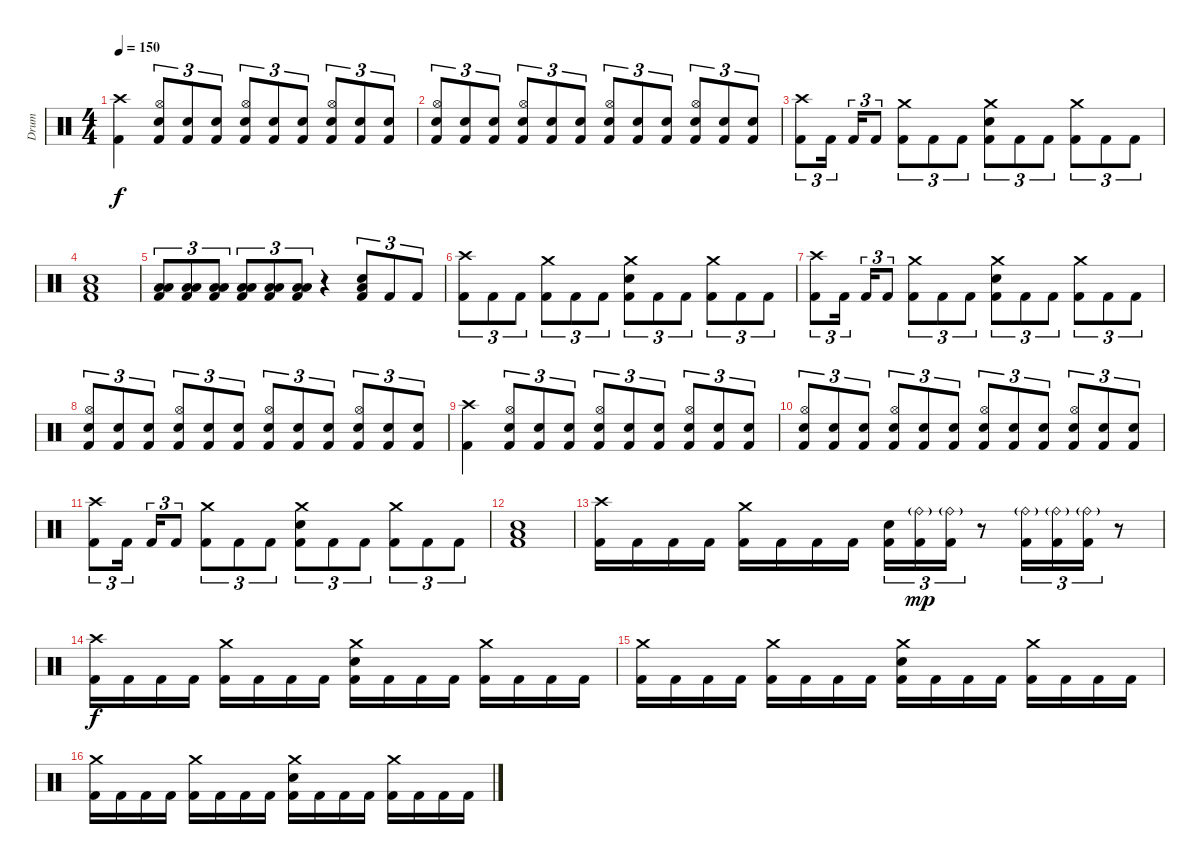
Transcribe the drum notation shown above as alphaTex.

\track ("Drum" "Drum") {instrument percussion}
\staff {score}
\articulation defaults
\ts (4 4)
\tempo 150
\clef neutral
\ks c
("Crash high (hit)" "Kick (hit) 2").4{dy f} ("Hi-Hat (open)" "Electric Snare (hit)" "Kick (hit) 2").8{tu (3 2)} ("Electric Snare (hit)" "Kick (hit) 2").8{tu (3 2)} ("Electric Snare (hit)" "Kick (hit) 2").8{tu (3 2)} ("Hi-Hat (open)" "Electric Snare (hit)" "Kick (hit) 2").8{tu (3 2)} ("Electric Snare (hit)" "Kick (hit) 2").8{tu (3 2)} ("Electric Snare (hit)" "Kick (hit) 2").8{tu (3 2)} ("Hi-Hat (open)" "Electric Snare (hit)" "Kick (hit) 2").8{tu (3 2)} ("Electric Snare (hit)" "Kick (hit) 2").8{tu (3 2)} ("Electric Snare (hit)" "Kick (hit) 2").8{tu (3 2)} |
("Hi-Hat (open)" "Electric Snare (hit)" "Kick (hit) 2").8{tu (3 2)} ("Electric Snare (hit)" "Kick (hit) 2").8{tu (3 2)} ("Electric Snare (hit)" "Kick (hit) 2").8{tu (3 2)} ("Hi-Hat (open)" "Electric Snare (hit)" "Kick (hit) 2").8{tu (3 2)} ("Electric Snare (hit)" "Kick (hit) 2").8{tu (3 2)} ("Electric Snare (hit)" "Kick (hit) 2").8{tu (3 2)} ("Hi-Hat (open)" "Electric Snare (hit)" "Kick (hit) 2").8{tu (3 2)} ("Electric Snare (hit)" "Kick (hit) 2").8{tu (3 2)} ("Electric Snare (hit)" "Kick (hit) 2").8{tu (3 2)} ("Hi-Hat (open)" "Electric Snare (hit)" "Kick (hit) 2").8{tu (3 2)} ("Electric Snare (hit)" "Kick (hit) 2").8{tu (3 2)} ("Electric Snare (hit)" "Kick (hit) 2").8{tu (3 2)} |
("Crash high (hit)" "Kick (hit) 2").8{tu (3 2)} "Kick (hit) 2".16{tu (3 2) beam splitsecondary} "Kick (hit) 2".16{tu (3 2)} "Kick (hit) 2".8{tu (3 2)} ("Crash medium (hit)" "Kick (hit) 2").8{tu (3 2)} "Kick (hit) 2".8{tu (3 2)} "Kick (hit) 2".8{tu (3 2)} ("Crash medium (hit)" "Electric Snare (hit)" "Kick (hit) 2").8{tu (3 2)} "Kick (hit) 2".8{tu (3 2)} "Kick (hit) 2".8{tu (3 2)} ("Crash medium (hit)" "Kick (hit) 2").8{tu (3 2)} "Kick (hit) 2".8{tu (3 2)} "Kick (hit) 2".8{tu (3 2)} |
("Electric Snare (hit)" "Low Floor Tom (hit)" "Kick (hit) 2").1 |
("Low Tom (hit)" "Low Floor Tom (hit)" "Kick (hit) 2").8{tu (3 2)} ("Low Tom (hit)" "Low Floor Tom (hit)" "Kick (hit) 2").8{tu (3 2)} ("Low Tom (hit)" "Low Floor Tom (hit)" "Kick (hit) 2").8{tu (3 2)} ("Low Tom (hit)" "Low Floor Tom (hit)" "Kick (hit) 2").8{tu (3 2)} ("Low Tom (hit)" "Low Floor Tom (hit)" "Kick (hit) 2").8{tu (3 2)} ("Low Tom (hit)" "Low Floor Tom (hit)" "Kick (hit) 2").8{tu (3 2)} r.4 ("Electric Snare (hit)" "Low Floor Tom (hit)" "Kick (hit) 2").8{tu (3 2)} "Kick (hit) 2".8{tu (3 2)} "Kick (hit) 2".8{tu (3 2)} |
("Crash high (hit)" "Kick (hit) 2").8{tu (3 2)} "Kick (hit) 2".8{tu (3 2)} "Kick (hit) 2".8{tu (3 2)} ("Crash medium (hit)" "Kick (hit) 2").8{tu (3 2)} "Kick (hit) 2".8{tu (3 2)} "Kick (hit) 2".8{tu (3 2)} ("Crash medium (hit)" "Electric Snare (hit)" "Kick (hit) 2").8{tu (3 2)} "Kick (hit) 2".8{tu (3 2)} "Kick (hit) 2".8{tu (3 2)} ("Crash medium (hit)" "Kick (hit) 2").8{tu (3 2)} "Kick (hit) 2".8{tu (3 2)} "Kick (hit) 2".8{tu (3 2)} |
("Crash high (hit)" "Kick (hit) 2").8{tu (3 2)} "Kick (hit) 2".16{tu (3 2) beam splitsecondary} "Kick (hit) 2".16{tu (3 2)} "Kick (hit) 2".8{tu (3 2)} ("Crash medium (hit)" "Kick (hit) 2").8{tu (3 2)} "Kick (hit) 2".8{tu (3 2)} "Kick (hit) 2".8{tu (3 2)} ("Crash medium (hit)" "Electric Snare (hit)" "Kick (hit) 2").8{tu (3 2)} "Kick (hit) 2".8{tu (3 2)} "Kick (hit) 2".8{tu (3 2)} ("Crash medium (hit)" "Kick (hit) 2").8{tu (3 2)} "Kick (hit) 2".8{tu (3 2)} "Kick (hit) 2".8{tu (3 2)} |
("Hi-Hat (open)" "Electric Snare (hit)" "Kick (hit) 2").8{tu (3 2)} ("Electric Snare (hit)" "Kick (hit) 2").8{tu (3 2)} ("Electric Snare (hit)" "Kick (hit) 2").8{tu (3 2)} ("Hi-Hat (open)" "Electric Snare (hit)" "Kick (hit) 2").8{tu (3 2)} ("Electric Snare (hit)" "Kick (hit) 2").8{tu (3 2)} ("Electric Snare (hit)" "Kick (hit) 2").8{tu (3 2)} ("Hi-Hat (open)" "Electric Snare (hit)" "Kick (hit) 2").8{tu (3 2)} ("Electric Snare (hit)" "Kick (hit) 2").8{tu (3 2)} ("Electric Snare (hit)" "Kick (hit) 2").8{tu (3 2)} ("Hi-Hat (open)" "Electric Snare (hit)" "Kick (hit) 2").8{tu (3 2)} ("Electric Snare (hit)" "Kick (hit) 2").8{tu (3 2)} ("Electric Snare (hit)" "Kick (hit) 2").8{tu (3 2)} |
("Crash high (hit)" "Kick (hit) 2").4 ("Hi-Hat (open)" "Electric Snare (hit)" "Kick (hit) 2").8{tu (3 2)} ("Electric Snare (hit)" "Kick (hit) 2").8{tu (3 2)} ("Electric Snare (hit)" "Kick (hit) 2").8{tu (3 2)} ("Hi-Hat (open)" "Electric Snare (hit)" "Kick (hit) 2").8{tu (3 2)} ("Electric Snare (hit)" "Kick (hit) 2").8{tu (3 2)} ("Electric Snare (hit)" "Kick (hit) 2").8{tu (3 2)} ("Hi-Hat (open)" "Electric Snare (hit)" "Kick (hit) 2").8{tu (3 2)} ("Electric Snare (hit)" "Kick (hit) 2").8{tu (3 2)} ("Electric Snare (hit)" "Kick (hit) 2").8{tu (3 2)} |
("Hi-Hat (open)" "Electric Snare (hit)" "Kick (hit) 2").8{tu (3 2)} ("Electric Snare (hit)" "Kick (hit) 2").8{tu (3 2)} ("Electric Snare (hit)" "Kick (hit) 2").8{tu (3 2)} ("Hi-Hat (open)" "Electric Snare (hit)" "Kick (hit) 2").8{tu (3 2)} ("Electric Snare (hit)" "Kick (hit) 2").8{tu (3 2)} ("Electric Snare (hit)" "Kick (hit) 2").8{tu (3 2)} ("Hi-Hat (open)" "Electric Snare (hit)" "Kick (hit) 2").8{tu (3 2)} ("Electric Snare (hit)" "Kick (hit) 2").8{tu (3 2)} ("Electric Snare (hit)" "Kick (hit) 2").8{tu (3 2)} ("Hi-Hat (open)" "Electric Snare (hit)" "Kick (hit) 2").8{tu (3 2)} ("Electric Snare (hit)" "Kick (hit) 2").8{tu (3 2)} ("Electric Snare (hit)" "Kick (hit) 2").8{tu (3 2)} |
("Crash high (hit)" "Kick (hit) 2").8{tu (3 2)} "Kick (hit) 2".16{tu (3 2) beam splitsecondary} "Kick (hit) 2".16{tu (3 2)} "Kick (hit) 2".8{tu (3 2)} ("Crash medium (hit)" "Kick (hit) 2").8{tu (3 2)} "Kick (hit) 2".8{tu (3 2)} "Kick (hit) 2".8{tu (3 2)} ("Crash medium (hit)" "Electric Snare (hit)" "Kick (hit) 2").8{tu (3 2)} "Kick (hit) 2".8{tu (3 2)} "Kick (hit) 2".8{tu (3 2)} ("Crash medium (hit)" "Kick (hit) 2").8{tu (3 2)} "Kick (hit) 2".8{tu (3 2)} "Kick (hit) 2".8{tu (3 2)} |
("Electric Snare (hit)" "Low Floor Tom (hit)" "Kick (hit) 2").1 |
("Crash high (hit)" "Kick (hit) 2").16 "Kick (hit) 2".16 "Kick (hit) 2".16 "Kick (hit) 2".16 ("Crash medium (hit)" "Kick (hit) 2").16 "Kick (hit) 2".16 "Kick (hit) 2".16 "Kick (hit) 2".16 ("Electric Snare (hit)" "Kick (hit) 2").16{tu (3 2)} ("Ride (bell)"{g} "Kick (hit) 2").16{tu (3 2) dy mp} ("Ride (bell)"{g} "Kick (hit) 2").16{tu (3 2)} r.8 ("Ride (bell)"{g} "Kick (hit) 2").16{tu (3 2)} ("Ride (bell)"{g} "Kick (hit) 2").16{tu (3 2)} ("Ride (bell)"{g} "Kick (hit) 2").16{tu (3 2)} r.8 |
("Crash high (hit)" "Kick (hit) 2").16{dy f} "Kick (hit) 2".16 "Kick (hit) 2".16 "Kick (hit) 2".16 ("Crash medium (hit)" "Kick (hit) 2").16 "Kick (hit) 2".16 "Kick (hit) 2".16 "Kick (hit) 2".16 ("Crash medium (hit)" "Electric Snare (hit)" "Kick (hit) 2").16 "Kick (hit) 2".16 "Kick (hit) 2".16 "Kick (hit) 2".16 ("Crash medium (hit)" "Kick (hit) 2").16 "Kick (hit) 2".16 "Kick (hit) 2".16 "Kick (hit) 2".16 |
("Crash medium (hit)" "Kick (hit) 2").16 "Kick (hit) 2".16 "Kick (hit) 2".16 "Kick (hit) 2".16 ("Crash medium (hit)" "Kick (hit) 2").16 "Kick (hit) 2".16 "Kick (hit) 2".16 "Kick (hit) 2".16 ("Crash medium (hit)" "Electric Snare (hit)" "Kick (hit) 2").16 "Kick (hit) 2".16 "Kick (hit) 2".16 "Kick (hit) 2".16 ("Crash medium (hit)" "Kick (hit) 2").16 "Kick (hit) 2".16 "Kick (hit) 2".16 "Kick (hit) 2".16 |
("Crash medium (hit)" "Kick (hit) 2").16 "Kick (hit) 2".16 "Kick (hit) 2".16 "Kick (hit) 2".16 ("Crash medium (hit)" "Kick (hit) 2").16 "Kick (hit) 2".16 "Kick (hit) 2".16 "Kick (hit) 2".16 ("Crash medium (hit)" "Electric Snare (hit)" "Kick (hit) 2").16 "Kick (hit) 2".16 "Kick (hit) 2".16 "Kick (hit) 2".16 ("Crash medium (hit)" "Kick (hit) 2").16 "Kick (hit) 2".16 "Kick (hit) 2".16 "Kick (hit) 2".16
